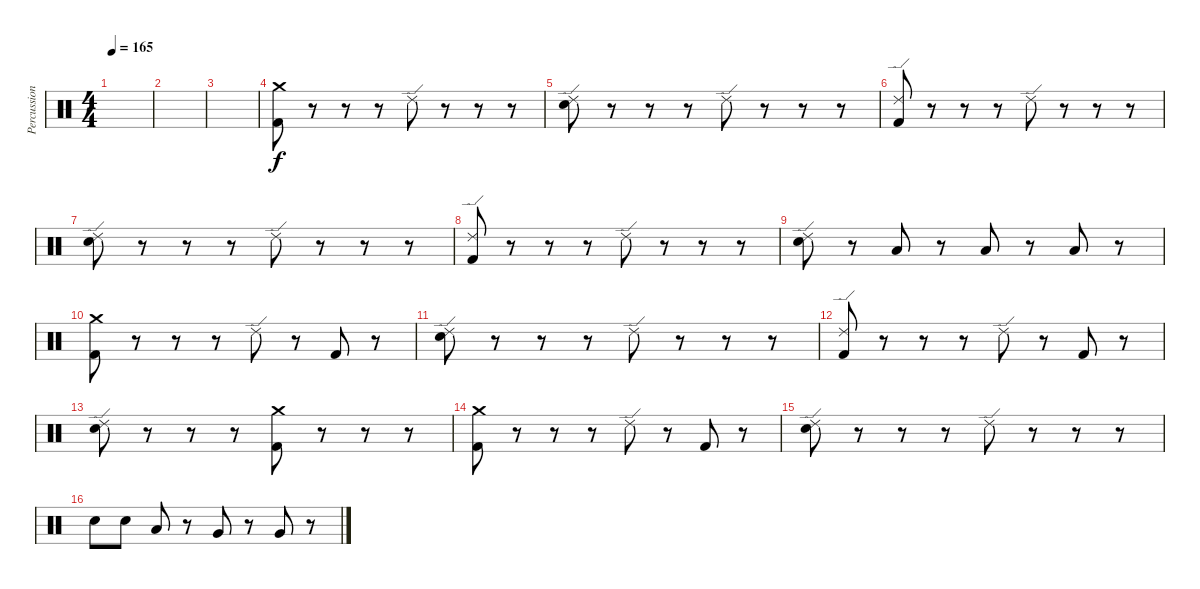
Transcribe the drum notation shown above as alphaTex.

\track ("Percussion" "Percussion") {instrument percussion}
\staff {score}
\articulation defaults
\ts (4 4)
\tempo 165
\clef neutral
\ks c
|
|
|
("Kick (hit) 2" "Crash medium (hit)").8 r.8 r.8 r.8 "Ride (edge) 2".8 r.8 r.8 r.8 |
("Ride (edge) 2" "Electric Snare (hit)").8 r.8 r.8 r.8 "Ride (edge) 2".8 r.8 r.8 r.8 |
("Ride (edge) 2" "Kick (hit) 2").8 r.8 r.8 r.8 "Ride (edge) 2".8 r.8 r.8 r.8 |
("Ride (edge) 2" "Electric Snare (hit)").8 r.8 r.8 r.8 "Ride (edge) 2".8 r.8 r.8 r.8 |
("Ride (edge) 2" "Kick (hit) 2").8 r.8 r.8 r.8 "Ride (edge) 2".8 r.8 r.8 r.8 |
("Ride (edge) 2" "Electric Snare (hit)").8 r.8 "Low Tom (hit)".8 r.8 "Low Tom (hit)".8 r.8 "Low Floor Tom (hit)".8 r.8 |
("Kick (hit) 2" "Crash medium (hit)").8 r.8 r.8 r.8 "Ride (edge) 2".8 r.8 "Kick (hit) 2".8 r.8 |
("Ride (edge) 2" "Electric Snare (hit)").8 r.8 r.8 r.8 "Ride (edge) 2".8 r.8 r.8 r.8 |
("Ride (edge) 2" "Kick (hit) 2").8 r.8 r.8 r.8 "Ride (edge) 2".8 r.8 "Kick (hit) 2".8 r.8 |
("Ride (edge) 2" "Electric Snare (hit)").8 r.8 r.8 r.8 ("Crash medium (hit)" "Kick (hit) 2").8 r.8 r.8 r.8 |
("Crash medium (hit)" "Kick (hit) 2").8 r.8 r.8 r.8 "Ride (edge) 2".8 r.8 "Kick (hit) 2".8 r.8 |
("Ride (edge) 2" "Electric Snare (hit)").8 r.8 r.8 r.8 "Ride (edge) 2".8 r.8 r.8 r.8 |
"Electric Snare (hit)".8 "Electric Snare (hit)".8 "Low Tom (hit)".8 r.8 "Very Low Tom (hit)".8 r.8 "Very Low Tom (hit)".8 r.8
